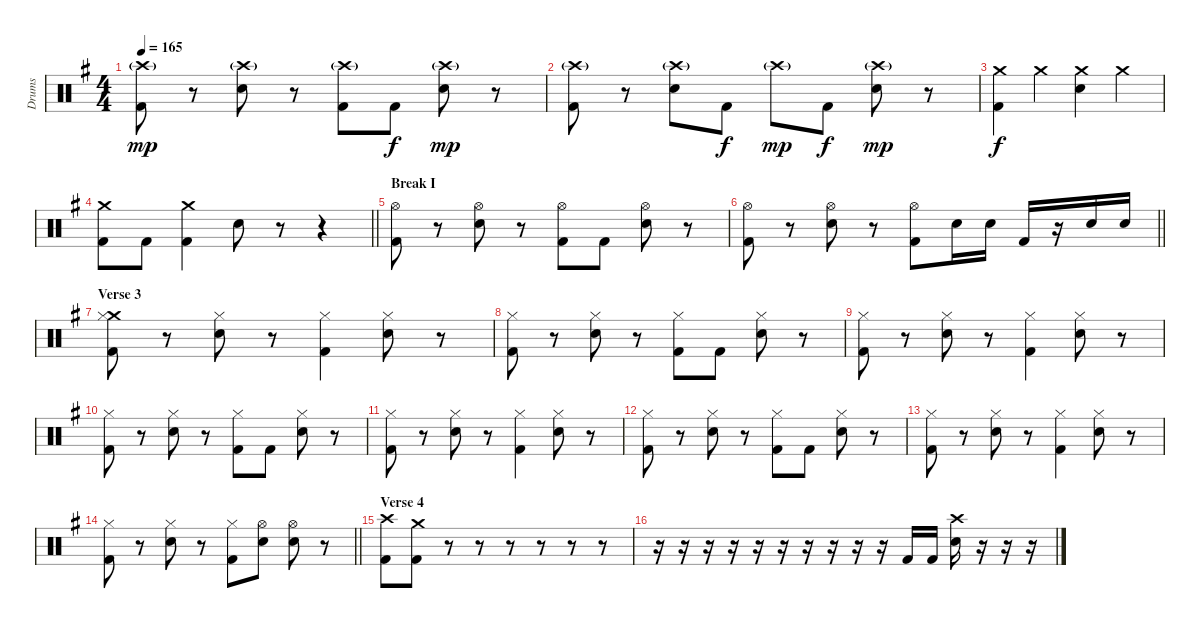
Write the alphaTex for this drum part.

\track ("Drums" "Drums") {instrument percussion}
\staff {score}
\articulation defaults
\ts (4 4)
\tempo 165
\clef neutral
\ks eminor
("Crash high (hit)"{g} "Kick (hit) 2").8{dy mp} r.8 ("Crash high (hit)"{g} "Electric Snare (hit)").8 r.8 ("Crash high (hit)"{g} "Kick (hit) 2").8 "Kick (hit) 2".8{dy f} ("Crash high (hit)"{g} "Electric Snare (hit)").8{dy mp} r.8 |
("Crash high (hit)"{g} "Kick (hit) 2").8 r.8 ("Crash high (hit)"{g} "Electric Snare (hit)").8 "Kick (hit) 2".8{dy f} "Crash high (hit)"{g}.8{dy mp} "Kick (hit) 2".8{dy f} ("Crash high (hit)"{g} "Electric Snare (hit)").8{dy mp} r.8 |
("Crash medium (hit)" "Kick (hit) 2").4{dy f} "Crash medium (hit)".4 ("Crash medium (hit)" "Electric Snare (hit)").4 "Crash medium (hit)".4 |
\barLineRight lightlight
("Crash medium (hit)" "Kick (hit) 2").8 "Kick (hit) 2".8 ("Crash medium (hit)" "Kick (hit) 2").4 "Electric Snare (hit)".8 r.8 r.4 |
\section ("" "Break I")
("Hi-Hat (open)" "Kick (hit) 2").8 r.8 ("Hi-Hat (open)" "Electric Snare (hit)").8 r.8 ("Hi-Hat (open)" "Kick (hit) 2").8 "Kick (hit) 2".8 ("Hi-Hat (open)" "Electric Snare (hit)").8 r.8 |
\barLineRight lightlight
("Hi-Hat (open)" "Kick (hit) 2").8 r.8 ("Hi-Hat (open)" "Electric Snare (hit)").8 r.8 ("Hi-Hat (open)" "Kick (hit) 2").8 "Electric Snare (hit)".16 "Electric Snare (hit)".16 "Kick (hit) 2".16 r.16 "Electric Snare (hit)".16 "Electric Snare (hit)".16 |
\section ("" "Verse 3")
("Crash medium (hit)" "Hi-Hat (closed)" "Kick (hit) 2").8 r.8 ("Hi-Hat (closed)" "Electric Snare (hit)").8 r.8 ("Hi-Hat (closed)" "Kick (hit) 2").4 ("Hi-Hat (closed)" "Electric Snare (hit)").8 r.8 |
("Hi-Hat (closed)" "Kick (hit) 2").8 r.8 ("Hi-Hat (closed)" "Electric Snare (hit)").8 r.8 ("Hi-Hat (closed)" "Kick (hit) 2").8 "Kick (hit) 2".8 ("Hi-Hat (closed)" "Electric Snare (hit)").8 r.8 |
("Hi-Hat (closed)" "Kick (hit) 2").8 r.8 ("Hi-Hat (closed)" "Electric Snare (hit)").8 r.8 ("Hi-Hat (closed)" "Kick (hit) 2").4 ("Hi-Hat (closed)" "Electric Snare (hit)").8 r.8 |
("Hi-Hat (closed)" "Kick (hit) 2").8 r.8 ("Hi-Hat (closed)" "Electric Snare (hit)").8 r.8 ("Hi-Hat (closed)" "Kick (hit) 2").8 "Kick (hit) 2".8 ("Hi-Hat (closed)" "Electric Snare (hit)").8 r.8 |
("Hi-Hat (closed)" "Kick (hit) 2").8 r.8 ("Hi-Hat (closed)" "Electric Snare (hit)").8 r.8 ("Hi-Hat (closed)" "Kick (hit) 2").4 ("Hi-Hat (closed)" "Electric Snare (hit)").8 r.8 |
("Hi-Hat (closed)" "Kick (hit) 2").8 r.8 ("Hi-Hat (closed)" "Electric Snare (hit)").8 r.8 ("Hi-Hat (closed)" "Kick (hit) 2").8 "Kick (hit) 2".8 ("Hi-Hat (closed)" "Electric Snare (hit)").8 r.8 |
("Hi-Hat (closed)" "Kick (hit) 2").8 r.8 ("Hi-Hat (closed)" "Electric Snare (hit)").8 r.8 ("Hi-Hat (closed)" "Kick (hit) 2").4 ("Hi-Hat (closed)" "Electric Snare (hit)").8 r.8 |
\barLineRight lightlight
("Hi-Hat (closed)" "Kick (hit) 2").8 r.8 ("Hi-Hat (closed)" "Electric Snare (hit)").8 r.8 ("Hi-Hat (closed)" "Kick (hit) 2").8 ("Hi-Hat (open)" "Electric Snare (hit)").8 ("Hi-Hat (open)" "Electric Snare (hit)").8 r.8 |
\section ("" "Verse 4")
("Crash high (hit)" "Kick (hit) 2").8 ("Crash medium (hit)" "Kick (hit) 2").8 r.8 r.8 r.8 r.8 r.8 r.8 |
r.16 r.16 r.16 r.16 r.16 r.16 r.16 r.16 r.16 r.16 "Kick (hit) 2".16 "Kick (hit) 2".16 ("Crash high (hit)" "Electric Snare (hit)").16 r.16 r.16 r.16
